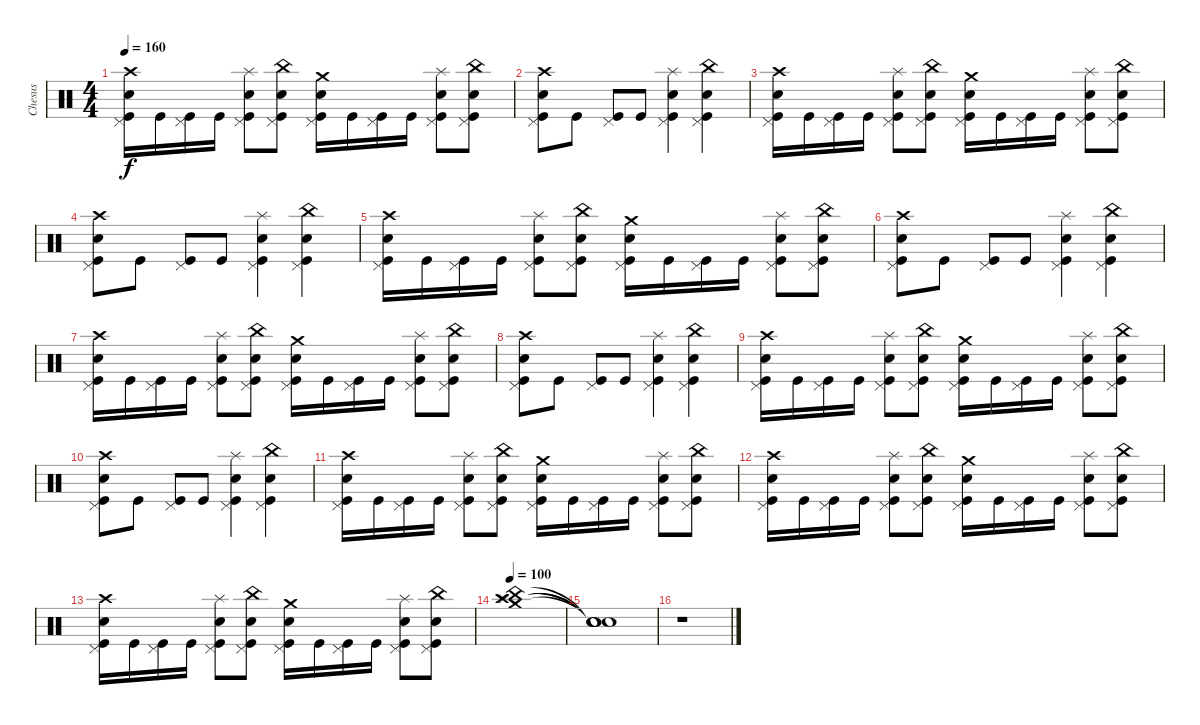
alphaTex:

\track ("Chesus" "Chesus") {instrument percussion}
\staff {score}
\articulation defaults
\ts (4 4)
\tempo 160
\clef neutral
\ks c
("Crash high (hit)" "Pedal Hi-Hat (hit)" "Snare (hit) 2" "Kick (hit)").16{dy f} "Kick (hit)".16 ("Pedal Hi-Hat (hit)" "Kick (hit)").16 "Kick (hit)".16 ("Splash (hit)" "Pedal Hi-Hat (hit)" "Snare (hit) 2" "Kick (hit)").8 ("China (hit)" "Pedal Hi-Hat (hit)" "Snare (hit) 2" "Kick (hit)").8 ("Crash medium (hit)" "Pedal Hi-Hat (hit)" "Snare (hit) 2" "Kick (hit)").16 "Kick (hit)".16 ("Pedal Hi-Hat (hit)" "Kick (hit)").16 "Kick (hit)".16 ("Splash (hit)" "Pedal Hi-Hat (hit)" "Snare (hit) 2" "Kick (hit)").8 ("China (hit)" "Pedal Hi-Hat (hit)" "Snare (hit) 2" "Kick (hit)").8 |
("Crash high (hit)" "Pedal Hi-Hat (hit)" "Snare (hit) 2" "Kick (hit)").8 "Kick (hit)".8 ("Pedal Hi-Hat (hit)" "Kick (hit)").8 "Kick (hit)".8 ("Splash (hit)" "Pedal Hi-Hat (hit)" "Snare (hit) 2" "Kick (hit)").4 ("China (hit)" "Pedal Hi-Hat (hit)" "Snare (hit) 2" "Kick (hit)").4 |
("Crash high (hit)" "Pedal Hi-Hat (hit)" "Snare (hit) 2" "Kick (hit)").16 "Kick (hit)".16 ("Pedal Hi-Hat (hit)" "Kick (hit)").16 "Kick (hit)".16 ("Splash (hit)" "Pedal Hi-Hat (hit)" "Snare (hit) 2" "Kick (hit)").8 ("China (hit)" "Pedal Hi-Hat (hit)" "Snare (hit) 2" "Kick (hit)").8 ("Crash medium (hit)" "Pedal Hi-Hat (hit)" "Snare (hit) 2" "Kick (hit)").16 "Kick (hit)".16 ("Pedal Hi-Hat (hit)" "Kick (hit)").16 "Kick (hit)".16 ("Splash (hit)" "Pedal Hi-Hat (hit)" "Snare (hit) 2" "Kick (hit)").8 ("China (hit)" "Pedal Hi-Hat (hit)" "Snare (hit) 2" "Kick (hit)").8 |
("Crash high (hit)" "Pedal Hi-Hat (hit)" "Snare (hit) 2" "Kick (hit)").8 "Kick (hit)".8 ("Pedal Hi-Hat (hit)" "Kick (hit)").8 "Kick (hit)".8 ("Splash (hit)" "Pedal Hi-Hat (hit)" "Snare (hit) 2" "Kick (hit)").4 ("China (hit)" "Pedal Hi-Hat (hit)" "Snare (hit) 2" "Kick (hit)").4 |
("Crash high (hit)" "Pedal Hi-Hat (hit)" "Snare (hit) 2" "Kick (hit)").16 "Kick (hit)".16 ("Pedal Hi-Hat (hit)" "Kick (hit)").16 "Kick (hit)".16 ("Splash (hit)" "Pedal Hi-Hat (hit)" "Snare (hit) 2" "Kick (hit)").8 ("China (hit)" "Pedal Hi-Hat (hit)" "Snare (hit) 2" "Kick (hit)").8 ("Crash medium (hit)" "Pedal Hi-Hat (hit)" "Snare (hit) 2" "Kick (hit)").16 "Kick (hit)".16 ("Pedal Hi-Hat (hit)" "Kick (hit)").16 "Kick (hit)".16 ("Splash (hit)" "Pedal Hi-Hat (hit)" "Snare (hit) 2" "Kick (hit)").8 ("China (hit)" "Pedal Hi-Hat (hit)" "Snare (hit) 2" "Kick (hit)").8 |
("Crash high (hit)" "Pedal Hi-Hat (hit)" "Snare (hit) 2" "Kick (hit)").8 "Kick (hit)".8 ("Pedal Hi-Hat (hit)" "Kick (hit)").8 "Kick (hit)".8 ("Splash (hit)" "Pedal Hi-Hat (hit)" "Snare (hit) 2" "Kick (hit)").4 ("China (hit)" "Pedal Hi-Hat (hit)" "Snare (hit) 2" "Kick (hit)").4 |
("Crash high (hit)" "Pedal Hi-Hat (hit)" "Snare (hit) 2" "Kick (hit)").16 "Kick (hit)".16 ("Pedal Hi-Hat (hit)" "Kick (hit)").16 "Kick (hit)".16 ("Splash (hit)" "Pedal Hi-Hat (hit)" "Snare (hit) 2" "Kick (hit)").8 ("China (hit)" "Pedal Hi-Hat (hit)" "Snare (hit) 2" "Kick (hit)").8 ("Crash medium (hit)" "Pedal Hi-Hat (hit)" "Snare (hit) 2" "Kick (hit)").16 "Kick (hit)".16 ("Pedal Hi-Hat (hit)" "Kick (hit)").16 "Kick (hit)".16 ("Splash (hit)" "Pedal Hi-Hat (hit)" "Snare (hit) 2" "Kick (hit)").8 ("China (hit)" "Pedal Hi-Hat (hit)" "Snare (hit) 2" "Kick (hit)").8 |
("Crash high (hit)" "Pedal Hi-Hat (hit)" "Snare (hit) 2" "Kick (hit)").8 "Kick (hit)".8 ("Pedal Hi-Hat (hit)" "Kick (hit)").8 "Kick (hit)".8 ("Splash (hit)" "Pedal Hi-Hat (hit)" "Snare (hit) 2" "Kick (hit)").4 ("China (hit)" "Pedal Hi-Hat (hit)" "Snare (hit) 2" "Kick (hit)").4 |
("Crash high (hit)" "Pedal Hi-Hat (hit)" "Snare (hit) 2" "Kick (hit)").16 "Kick (hit)".16 ("Pedal Hi-Hat (hit)" "Kick (hit)").16 "Kick (hit)".16 ("Splash (hit)" "Pedal Hi-Hat (hit)" "Snare (hit) 2" "Kick (hit)").8 ("China (hit)" "Pedal Hi-Hat (hit)" "Snare (hit) 2" "Kick (hit)").8 ("Crash medium (hit)" "Pedal Hi-Hat (hit)" "Snare (hit) 2" "Kick (hit)").16 "Kick (hit)".16 ("Pedal Hi-Hat (hit)" "Kick (hit)").16 "Kick (hit)".16 ("Splash (hit)" "Pedal Hi-Hat (hit)" "Snare (hit) 2" "Kick (hit)").8 ("China (hit)" "Pedal Hi-Hat (hit)" "Snare (hit) 2" "Kick (hit)").8 |
("Crash high (hit)" "Pedal Hi-Hat (hit)" "Snare (hit) 2" "Kick (hit)").8 "Kick (hit)".8 ("Pedal Hi-Hat (hit)" "Kick (hit)").8 "Kick (hit)".8 ("Splash (hit)" "Pedal Hi-Hat (hit)" "Snare (hit) 2" "Kick (hit)").4 ("China (hit)" "Pedal Hi-Hat (hit)" "Snare (hit) 2" "Kick (hit)").4 |
("Crash high (hit)" "Pedal Hi-Hat (hit)" "Snare (hit) 2" "Kick (hit)").16 "Kick (hit)".16 ("Pedal Hi-Hat (hit)" "Kick (hit)").16 "Kick (hit)".16 ("Splash (hit)" "Pedal Hi-Hat (hit)" "Snare (hit) 2" "Kick (hit)").8 ("China (hit)" "Pedal Hi-Hat (hit)" "Snare (hit) 2" "Kick (hit)").8 ("Crash medium (hit)" "Pedal Hi-Hat (hit)" "Snare (hit) 2" "Kick (hit)").16 "Kick (hit)".16 ("Pedal Hi-Hat (hit)" "Kick (hit)").16 "Kick (hit)".16 ("Splash (hit)" "Pedal Hi-Hat (hit)" "Snare (hit) 2" "Kick (hit)").8 ("China (hit)" "Pedal Hi-Hat (hit)" "Snare (hit) 2" "Kick (hit)").8 |
("Crash high (hit)" "Pedal Hi-Hat (hit)" "Snare (hit) 2" "Kick (hit)").16 "Kick (hit)".16 ("Pedal Hi-Hat (hit)" "Kick (hit)").16 "Kick (hit)".16 ("Splash (hit)" "Pedal Hi-Hat (hit)" "Snare (hit) 2" "Kick (hit)").8 ("China (hit)" "Pedal Hi-Hat (hit)" "Snare (hit) 2" "Kick (hit)").8 ("Crash medium (hit)" "Pedal Hi-Hat (hit)" "Snare (hit) 2" "Kick (hit)").16 "Kick (hit)".16 ("Pedal Hi-Hat (hit)" "Kick (hit)").16 "Kick (hit)".16 ("Splash (hit)" "Pedal Hi-Hat (hit)" "Snare (hit) 2" "Kick (hit)").8 ("China (hit)" "Pedal Hi-Hat (hit)" "Snare (hit) 2" "Kick (hit)").8 |
("Crash high (hit)" "Pedal Hi-Hat (hit)" "Snare (hit) 2" "Kick (hit)").16 "Kick (hit)".16 ("Pedal Hi-Hat (hit)" "Kick (hit)").16 "Kick (hit)".16 ("Splash (hit)" "Pedal Hi-Hat (hit)" "Snare (hit) 2" "Kick (hit)").8 ("China (hit)" "Pedal Hi-Hat (hit)" "Snare (hit) 2" "Kick (hit)").8 ("Crash medium (hit)" "Pedal Hi-Hat (hit)" "Snare (hit) 2" "Kick (hit)").16 "Kick (hit)".16 ("Pedal Hi-Hat (hit)" "Kick (hit)").16 "Kick (hit)".16 ("Splash (hit)" "Pedal Hi-Hat (hit)" "Snare (hit) 2" "Kick (hit)").8 ("China (hit)" "Pedal Hi-Hat (hit)" "Snare (hit) 2" "Kick (hit)").8 |
\tempo 100
("China (hit)" "Splash (hit)" "Crash medium (hit)" "Crash high (hit)").1{volume 0} |
("Snare (hit)"{t} "Snare (hit)"{t} "Snare (hit)"{t} "Snare (hit)"{t}).1 |
r.1
